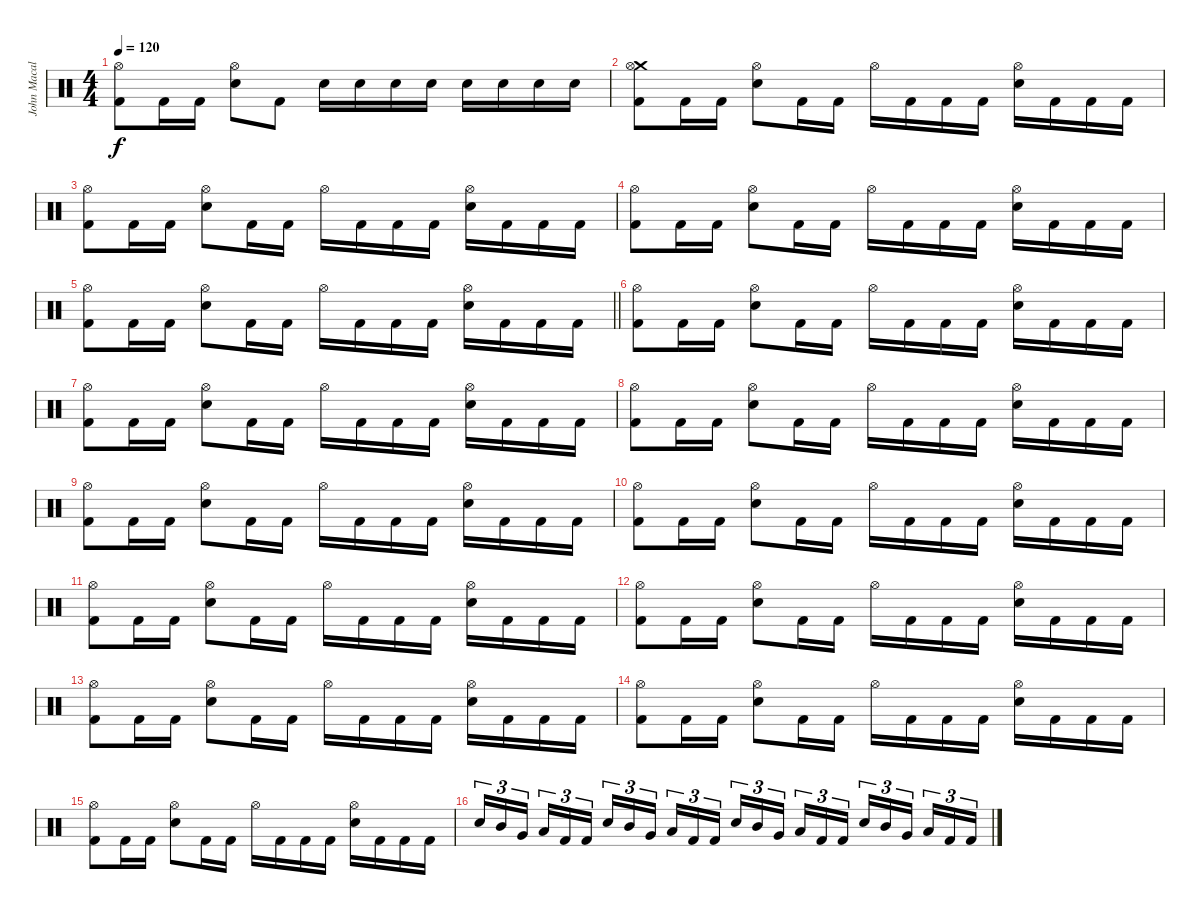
\track ("John Macaluso" "John Macal") {instrument percussion}
\staff {score}
\articulation defaults
\ts (4 4)
\tempo 120
\clef neutral
\ks c
("Hi-Hat (open)" "Kick (hit) 2").8{dy f} "Kick (hit) 2".16 "Kick (hit) 2".16 ("Hi-Hat (open)" "Snare (hit) 2").8 "Kick (hit) 2".8 "Snare (hit) 2".16 "Snare (hit) 2".16 "Snare (hit) 2".16 "Snare (hit) 2".16 "Snare (hit) 2".16 "Snare (hit) 2".16 "Snare (hit) 2".16 "Snare (hit) 2".16 |
("Crash medium (hit)" "Hi-Hat (open)" "Kick (hit) 2").8 "Kick (hit) 2".16 "Kick (hit) 2".16 ("Hi-Hat (open)" "Snare (hit) 2").8 "Kick (hit) 2".16 "Kick (hit) 2".16 "Hi-Hat (open)".16 "Kick (hit) 2".16 "Kick (hit) 2".16 "Kick (hit) 2".16 ("Hi-Hat (open)" "Snare (hit) 2").16 "Kick (hit) 2".16 "Kick (hit) 2".16 "Kick (hit) 2".16 |
("Hi-Hat (open)" "Kick (hit) 2").8 "Kick (hit) 2".16 "Kick (hit) 2".16 ("Hi-Hat (open)" "Snare (hit) 2").8 "Kick (hit) 2".16 "Kick (hit) 2".16 "Hi-Hat (open)".16 "Kick (hit) 2".16 "Kick (hit) 2".16 "Kick (hit) 2".16 ("Hi-Hat (open)" "Snare (hit) 2").16 "Kick (hit) 2".16 "Kick (hit) 2".16 "Kick (hit) 2".16 |
("Hi-Hat (open)" "Kick (hit) 2").8 "Kick (hit) 2".16 "Kick (hit) 2".16 ("Hi-Hat (open)" "Snare (hit) 2").8 "Kick (hit) 2".16 "Kick (hit) 2".16 "Hi-Hat (open)".16 "Kick (hit) 2".16 "Kick (hit) 2".16 "Kick (hit) 2".16 ("Hi-Hat (open)" "Snare (hit) 2").16 "Kick (hit) 2".16 "Kick (hit) 2".16 "Kick (hit) 2".16 |
\barLineRight lightlight
("Hi-Hat (open)" "Kick (hit) 2").8 "Kick (hit) 2".16 "Kick (hit) 2".16 ("Hi-Hat (open)" "Snare (hit) 2").8 "Kick (hit) 2".16 "Kick (hit) 2".16 "Hi-Hat (open)".16 "Kick (hit) 2".16 "Kick (hit) 2".16 "Kick (hit) 2".16 ("Hi-Hat (open)" "Snare (hit) 2").16 "Kick (hit) 2".16 "Kick (hit) 2".16 "Kick (hit) 2".16 |
("Hi-Hat (open)" "Kick (hit) 2").8 "Kick (hit) 2".16 "Kick (hit) 2".16 ("Hi-Hat (open)" "Snare (hit) 2").8 "Kick (hit) 2".16 "Kick (hit) 2".16 "Hi-Hat (open)".16 "Kick (hit) 2".16 "Kick (hit) 2".16 "Kick (hit) 2".16 ("Hi-Hat (open)" "Snare (hit) 2").16 "Kick (hit) 2".16 "Kick (hit) 2".16 "Kick (hit) 2".16 |
("Hi-Hat (open)" "Kick (hit) 2").8 "Kick (hit) 2".16 "Kick (hit) 2".16 ("Hi-Hat (open)" "Snare (hit) 2").8 "Kick (hit) 2".16 "Kick (hit) 2".16 "Hi-Hat (open)".16 "Kick (hit) 2".16 "Kick (hit) 2".16 "Kick (hit) 2".16 ("Hi-Hat (open)" "Snare (hit) 2").16 "Kick (hit) 2".16 "Kick (hit) 2".16 "Kick (hit) 2".16 |
("Hi-Hat (open)" "Kick (hit) 2").8 "Kick (hit) 2".16 "Kick (hit) 2".16 ("Hi-Hat (open)" "Snare (hit) 2").8 "Kick (hit) 2".16 "Kick (hit) 2".16 "Hi-Hat (open)".16 "Kick (hit) 2".16 "Kick (hit) 2".16 "Kick (hit) 2".16 ("Hi-Hat (open)" "Snare (hit) 2").16 "Kick (hit) 2".16 "Kick (hit) 2".16 "Kick (hit) 2".16 |
("Hi-Hat (open)" "Kick (hit) 2").8 "Kick (hit) 2".16 "Kick (hit) 2".16 ("Hi-Hat (open)" "Snare (hit) 2").8 "Kick (hit) 2".16 "Kick (hit) 2".16 "Hi-Hat (open)".16 "Kick (hit) 2".16 "Kick (hit) 2".16 "Kick (hit) 2".16 ("Hi-Hat (open)" "Snare (hit) 2").16 "Kick (hit) 2".16 "Kick (hit) 2".16 "Kick (hit) 2".16 |
("Hi-Hat (open)" "Kick (hit) 2").8 "Kick (hit) 2".16 "Kick (hit) 2".16 ("Hi-Hat (open)" "Snare (hit) 2").8 "Kick (hit) 2".16 "Kick (hit) 2".16 "Hi-Hat (open)".16 "Kick (hit) 2".16 "Kick (hit) 2".16 "Kick (hit) 2".16 ("Hi-Hat (open)" "Snare (hit) 2").16 "Kick (hit) 2".16 "Kick (hit) 2".16 "Kick (hit) 2".16 |
("Hi-Hat (open)" "Kick (hit) 2").8 "Kick (hit) 2".16 "Kick (hit) 2".16 ("Hi-Hat (open)" "Snare (hit) 2").8 "Kick (hit) 2".16 "Kick (hit) 2".16 "Hi-Hat (open)".16 "Kick (hit) 2".16 "Kick (hit) 2".16 "Kick (hit) 2".16 ("Hi-Hat (open)" "Snare (hit) 2").16 "Kick (hit) 2".16 "Kick (hit) 2".16 "Kick (hit) 2".16 |
("Hi-Hat (open)" "Kick (hit) 2").8 "Kick (hit) 2".16 "Kick (hit) 2".16 ("Hi-Hat (open)" "Snare (hit) 2").8 "Kick (hit) 2".16 "Kick (hit) 2".16 "Hi-Hat (open)".16 "Kick (hit) 2".16 "Kick (hit) 2".16 "Kick (hit) 2".16 ("Hi-Hat (open)" "Snare (hit) 2").16 "Kick (hit) 2".16 "Kick (hit) 2".16 "Kick (hit) 2".16 |
("Hi-Hat (open)" "Kick (hit) 2").8 "Kick (hit) 2".16 "Kick (hit) 2".16 ("Hi-Hat (open)" "Snare (hit) 2").8 "Kick (hit) 2".16 "Kick (hit) 2".16 "Hi-Hat (open)".16 "Kick (hit) 2".16 "Kick (hit) 2".16 "Kick (hit) 2".16 ("Hi-Hat (open)" "Snare (hit) 2").16 "Kick (hit) 2".16 "Kick (hit) 2".16 "Kick (hit) 2".16 |
("Hi-Hat (open)" "Kick (hit) 2").8 "Kick (hit) 2".16 "Kick (hit) 2".16 ("Hi-Hat (open)" "Snare (hit) 2").8 "Kick (hit) 2".16 "Kick (hit) 2".16 "Hi-Hat (open)".16 "Kick (hit) 2".16 "Kick (hit) 2".16 "Kick (hit) 2".16 ("Hi-Hat (open)" "Snare (hit) 2").16 "Kick (hit) 2".16 "Kick (hit) 2".16 "Kick (hit) 2".16 |
("Hi-Hat (open)" "Kick (hit) 2").8 "Kick (hit) 2".16 "Kick (hit) 2".16 ("Hi-Hat (open)" "Snare (hit) 2").8 "Kick (hit) 2".16 "Kick (hit) 2".16 "Hi-Hat (open)".16 "Kick (hit) 2".16 "Kick (hit) 2".16 "Kick (hit) 2".16 ("Hi-Hat (open)" "Snare (hit) 2").16 "Kick (hit) 2".16 "Kick (hit) 2".16 "Kick (hit) 2".16 |
"Snare (hit) 2".16{tu (3 2)} "Mid Tom (hit)".16{tu (3 2)} "Very Low Tom (hit)".16{tu (3 2) beam splitsecondary} "Low Tom (hit)".16{tu (3 2)} "Kick (hit) 2".16{tu (3 2)} "Kick (hit) 2".16{tu (3 2)} "Snare (hit) 2".16{tu (3 2)} "Mid Tom (hit)".16{tu (3 2)} "Very Low Tom (hit)".16{tu (3 2) beam splitsecondary} "Low Tom (hit)".16{tu (3 2)} "Kick (hit) 2".16{tu (3 2)} "Kick (hit) 2".16{tu (3 2)} "Snare (hit) 2".16{tu (3 2)} "Mid Tom (hit)".16{tu (3 2)} "Very Low Tom (hit)".16{tu (3 2) beam splitsecondary} "Low Tom (hit)".16{tu (3 2)} "Kick (hit) 2".16{tu (3 2)} "Kick (hit) 2".16{tu (3 2)} "Snare (hit) 2".16{tu (3 2)} "Mid Tom (hit)".16{tu (3 2)} "Very Low Tom (hit)".16{tu (3 2) beam splitsecondary} "Low Tom (hit)".16{tu (3 2)} "Kick (hit) 2".16{tu (3 2)} "Kick (hit) 2".16{tu (3 2)}
